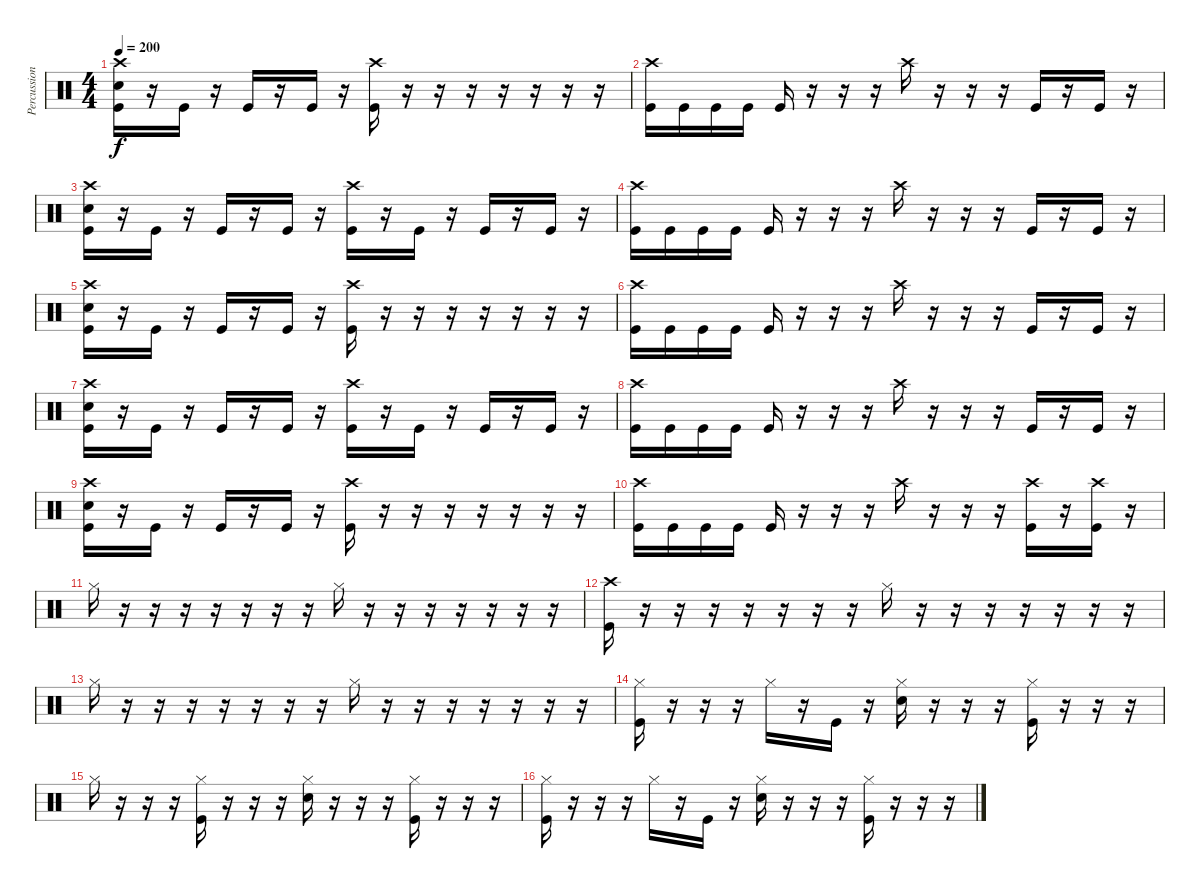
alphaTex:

\track ("Percussion" "Percussion") {instrument percussion}
\staff {score}
\articulation defaults
\ts (4 4)
\tempo 200
\clef neutral
\ks c
("Crash high (hit)" "Kick (hit)" "Electric Snare (hit)").16{dy f} r.16 "Kick (hit)".16 r.16 "Kick (hit)".16 r.16 "Kick (hit)".16 r.16 ("Crash high (hit)" "Kick (hit)").16 r.16 r.16 r.16 r.16 r.16 r.16 r.16 |
("Crash high (hit)" "Kick (hit)").16 "Kick (hit)".16 "Kick (hit)".16 "Kick (hit)".16 "Kick (hit)".16 r.16 r.16 r.16 "Crash high (hit)".16 r.16 r.16 r.16 "Kick (hit)".16 r.16 "Kick (hit)".16 r.16 |
("Crash high (hit)" "Kick (hit)" "Electric Snare (hit)").16 r.16 "Kick (hit)".16 r.16 "Kick (hit)".16 r.16 "Kick (hit)".16 r.16 ("Crash high (hit)" "Kick (hit)").16 r.16 "Kick (hit)".16 r.16 "Kick (hit)".16 r.16 "Kick (hit)".16 r.16 |
("Crash high (hit)" "Kick (hit)").16 "Kick (hit)".16 "Kick (hit)".16 "Kick (hit)".16 "Kick (hit)".16 r.16 r.16 r.16 "Crash high (hit)".16 r.16 r.16 r.16 "Kick (hit)".16 r.16 "Kick (hit)".16 r.16 |
("Crash high (hit)" "Kick (hit)" "Electric Snare (hit)").16 r.16 "Kick (hit)".16 r.16 "Kick (hit)".16 r.16 "Kick (hit)".16 r.16 ("Crash high (hit)" "Kick (hit)").16 r.16 r.16 r.16 r.16 r.16 r.16 r.16 |
("Crash high (hit)" "Kick (hit)").16 "Kick (hit)".16 "Kick (hit)".16 "Kick (hit)".16 "Kick (hit)".16 r.16 r.16 r.16 "Crash high (hit)".16 r.16 r.16 r.16 "Kick (hit)".16 r.16 "Kick (hit)".16 r.16 |
("Crash high (hit)" "Kick (hit)" "Electric Snare (hit)").16 r.16 "Kick (hit)".16 r.16 "Kick (hit)".16 r.16 "Kick (hit)".16 r.16 ("Crash high (hit)" "Kick (hit)").16 r.16 "Kick (hit)".16 r.16 "Kick (hit)".16 r.16 "Kick (hit)".16 r.16 |
("Crash high (hit)" "Kick (hit)").16 "Kick (hit)".16 "Kick (hit)".16 "Kick (hit)".16 "Kick (hit)".16 r.16 r.16 r.16 "Crash high (hit)".16 r.16 r.16 r.16 "Kick (hit)".16 r.16 "Kick (hit)".16 r.16 |
("Crash high (hit)" "Kick (hit)" "Electric Snare (hit)").16 r.16 "Kick (hit)".16 r.16 "Kick (hit)".16 r.16 "Kick (hit)".16 r.16 ("Crash high (hit)" "Kick (hit)").16 r.16 r.16 r.16 r.16 r.16 r.16 r.16 |
("Crash high (hit)" "Kick (hit)").16 "Kick (hit)".16 "Kick (hit)".16 "Kick (hit)".16 "Kick (hit)".16 r.16 r.16 r.16 "Crash high (hit)".16 r.16 r.16 r.16 ("Crash high (hit)" "Kick (hit)").16 r.16 ("Crash high (hit)" "Kick (hit)").16 r.16 |
"Hi-Hat (closed)".16 r.16 r.16 r.16 r.16 r.16 r.16 r.16 "Hi-Hat (closed)".16 r.16 r.16 r.16 r.16 r.16 r.16 r.16 |
("Crash high (hit)" "Kick (hit)").16 r.16 r.16 r.16 r.16 r.16 r.16 r.16 "Hi-Hat (closed)".16 r.16 r.16 r.16 r.16 r.16 r.16 r.16 |
"Hi-Hat (closed)".16 r.16 r.16 r.16 r.16 r.16 r.16 r.16 "Hi-Hat (closed)".16 r.16 r.16 r.16 r.16 r.16 r.16 r.16 |
("Hi-Hat (closed)" "Kick (hit)").16 r.16 r.16 r.16 "Hi-Hat (closed)".16 r.16 "Kick (hit)".16 r.16 ("Hi-Hat (closed)" "Electric Snare (hit)").16 r.16 r.16 r.16 ("Hi-Hat (closed)" "Kick (hit)").16 r.16 r.16 r.16 |
"Hi-Hat (closed)".16 r.16 r.16 r.16 ("Hi-Hat (closed)" "Kick (hit)").16 r.16 r.16 r.16 ("Hi-Hat (closed)" "Electric Snare (hit)").16 r.16 r.16 r.16 ("Hi-Hat (closed)" "Kick (hit)").16 r.16 r.16 r.16 |
("Hi-Hat (closed)" "Kick (hit)").16 r.16 r.16 r.16 "Hi-Hat (closed)".16 r.16 "Kick (hit)".16 r.16 ("Hi-Hat (closed)" "Electric Snare (hit)").16 r.16 r.16 r.16 ("Hi-Hat (closed)" "Kick (hit)").16 r.16 r.16 r.16
